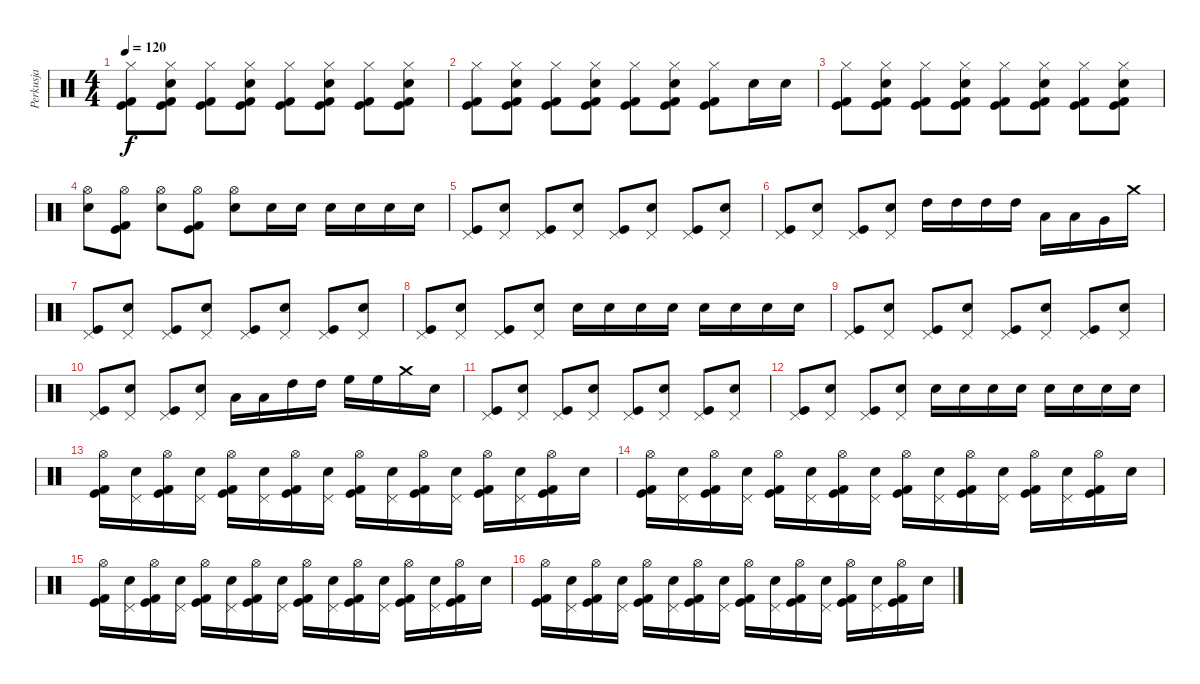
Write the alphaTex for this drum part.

\track ("Perkusja" "Perkusja") {instrument percussion}
\staff {score}
\articulation defaults
\ts (4 4)
\tempo 120
\clef neutral
\ks c
("Hi-Hat (closed)" "Kick (hit)" "Kick (hit) 2").8{dy f} ("Hi-Hat (closed)" "Snare (hit) 2" "Kick (hit)" "Kick (hit) 2").8 ("Hi-Hat (closed)" "Kick (hit)" "Kick (hit) 2").8 ("Hi-Hat (closed)" "Snare (hit) 2" "Kick (hit)" "Kick (hit) 2").8 ("Hi-Hat (closed)" "Kick (hit)" "Kick (hit) 2").8 ("Hi-Hat (closed)" "Snare (hit) 2" "Kick (hit)" "Kick (hit) 2").8 ("Hi-Hat (closed)" "Kick (hit)" "Kick (hit) 2").8 ("Hi-Hat (closed)" "Snare (hit) 2" "Kick (hit)" "Kick (hit) 2").8 |
("Hi-Hat (closed)" "Kick (hit)" "Kick (hit) 2").8 ("Hi-Hat (closed)" "Snare (hit) 2" "Kick (hit)" "Kick (hit) 2").8 ("Hi-Hat (closed)" "Kick (hit)" "Kick (hit) 2").8 ("Hi-Hat (closed)" "Snare (hit) 2" "Kick (hit)" "Kick (hit) 2").8 ("Hi-Hat (closed)" "Kick (hit)" "Kick (hit) 2").8 ("Hi-Hat (closed)" "Snare (hit) 2" "Kick (hit)" "Kick (hit) 2").8 ("Hi-Hat (closed)" "Kick (hit)" "Kick (hit) 2").8 "Snare (hit) 2".16 "Snare (hit) 2".16 |
("Hi-Hat (closed)" "Kick (hit)" "Kick (hit) 2").8 ("Hi-Hat (closed)" "Snare (hit) 2" "Kick (hit)" "Kick (hit) 2").8 ("Hi-Hat (closed)" "Kick (hit)" "Kick (hit) 2").8 ("Hi-Hat (closed)" "Snare (hit) 2" "Kick (hit)" "Kick (hit) 2").8 ("Hi-Hat (closed)" "Kick (hit)" "Kick (hit) 2").8 ("Hi-Hat (closed)" "Snare (hit) 2" "Kick (hit)" "Kick (hit) 2").8 ("Hi-Hat (closed)" "Kick (hit)" "Kick (hit) 2").8 ("Hi-Hat (closed)" "Snare (hit) 2" "Kick (hit)" "Kick (hit) 2").8 |
("Hi-Hat (open)" "Electric Snare (hit)").8 ("Hi-Hat (open)" "Kick (hit)" "Kick (hit) 2").8 ("Hi-Hat (open)" "Electric Snare (hit)").8 ("Hi-Hat (open)" "Kick (hit)" "Kick (hit) 2").8 ("Hi-Hat (open)" "Electric Snare (hit)").8 "Snare (hit) 2".16 "Snare (hit) 2".16 "Snare (hit) 2".16 "Snare (hit) 2".16 "Snare (hit) 2".16 "Snare (hit) 2".16 |
("Pedal Hi-Hat (hit)" "Kick (hit)").8 ("Pedal Hi-Hat (hit)" "Snare (hit) 2").8 ("Pedal Hi-Hat (hit)" "Kick (hit)").8 ("Pedal Hi-Hat (hit)" "Snare (hit) 2").8 ("Pedal Hi-Hat (hit)" "Kick (hit)").8 ("Pedal Hi-Hat (hit)" "Snare (hit) 2").8 ("Pedal Hi-Hat (hit)" "Kick (hit)").8 ("Pedal Hi-Hat (hit)" "Snare (hit) 2").8 |
("Pedal Hi-Hat (hit)" "Kick (hit)").8 ("Pedal Hi-Hat (hit)" "Snare (hit) 2").8 ("Pedal Hi-Hat (hit)" "Kick (hit)").8 ("Pedal Hi-Hat (hit)" "Snare (hit) 2").8 "High Tom (hit)".16 "High Tom (hit)".16 "High Tom (hit)".16 "High Tom (hit)".16 "Low Tom (hit)".16 "Low Tom (hit)".16 "Very Low Tom (hit)".16 "Crash medium (hit)".16 |
("Pedal Hi-Hat (hit)" "Kick (hit)").8 ("Pedal Hi-Hat (hit)" "Snare (hit) 2").8 ("Pedal Hi-Hat (hit)" "Kick (hit)").8 ("Pedal Hi-Hat (hit)" "Snare (hit) 2").8 ("Pedal Hi-Hat (hit)" "Kick (hit)").8 ("Pedal Hi-Hat (hit)" "Snare (hit) 2").8 ("Pedal Hi-Hat (hit)" "Kick (hit)").8 ("Pedal Hi-Hat (hit)" "Snare (hit) 2").8 |
("Pedal Hi-Hat (hit)" "Kick (hit)").8 ("Pedal Hi-Hat (hit)" "Snare (hit) 2").8 ("Pedal Hi-Hat (hit)" "Kick (hit)").8 ("Pedal Hi-Hat (hit)" "Snare (hit) 2").8 "Snare (hit) 2".16 "Snare (hit) 2".16 "Snare (hit) 2".16 "Snare (hit) 2".16 "Snare (hit) 2".16 "Snare (hit) 2".16 "Snare (hit) 2".16 "Snare (hit) 2".16 |
("Pedal Hi-Hat (hit)" "Kick (hit)").8 ("Pedal Hi-Hat (hit)" "Snare (hit) 2").8 ("Pedal Hi-Hat (hit)" "Kick (hit)").8 ("Pedal Hi-Hat (hit)" "Snare (hit) 2").8 ("Pedal Hi-Hat (hit)" "Kick (hit)").8 ("Pedal Hi-Hat (hit)" "Snare (hit) 2").8 ("Pedal Hi-Hat (hit)" "Kick (hit)").8 ("Pedal Hi-Hat (hit)" "Snare (hit) 2").8 |
("Pedal Hi-Hat (hit)" "Kick (hit)").8 ("Pedal Hi-Hat (hit)" "Snare (hit) 2").8 ("Pedal Hi-Hat (hit)" "Kick (hit)").8 ("Pedal Hi-Hat (hit)" "Snare (hit) 2").8 "Low Tom (hit)".16 "Low Tom (hit)".16 "High Tom (hit)".16 "High Tom (hit)".16 "High Floor Tom (hit)".16 "High Floor Tom (hit)".16 "Crash medium (hit)".16 "Snare (hit)"{x}.16 |
("Pedal Hi-Hat (hit)" "Kick (hit)").8 ("Pedal Hi-Hat (hit)" "Snare (hit) 2").8 ("Pedal Hi-Hat (hit)" "Kick (hit)").8 ("Pedal Hi-Hat (hit)" "Snare (hit) 2").8 ("Pedal Hi-Hat (hit)" "Kick (hit)").8 ("Pedal Hi-Hat (hit)" "Snare (hit) 2").8 ("Pedal Hi-Hat (hit)" "Kick (hit)").8 ("Pedal Hi-Hat (hit)" "Snare (hit) 2").8 |
("Pedal Hi-Hat (hit)" "Kick (hit)").8 ("Pedal Hi-Hat (hit)" "Snare (hit) 2").8 ("Pedal Hi-Hat (hit)" "Kick (hit)").8 ("Pedal Hi-Hat (hit)" "Snare (hit) 2").8 "Snare (hit) 2".16 "Snare (hit) 2".16 "Snare (hit) 2".16 "Snare (hit) 2".16 "Snare (hit) 2".16 "Snare (hit) 2".16 "Snare (hit) 2".16 "Snare (hit) 2".16 |
("Hi-Hat (open)" "Kick (hit)" "Kick (hit) 2").16 ("Pedal Hi-Hat (hit)" "Snare (hit) 2").16 ("Hi-Hat (open)" "Kick (hit)" "Kick (hit) 2").16 ("Pedal Hi-Hat (hit)" "Snare (hit) 2").16 ("Hi-Hat (open)" "Kick (hit)" "Kick (hit) 2").16 ("Pedal Hi-Hat (hit)" "Snare (hit) 2").16 ("Hi-Hat (open)" "Kick (hit)" "Kick (hit) 2").16 ("Pedal Hi-Hat (hit)" "Snare (hit) 2").16 ("Hi-Hat (open)" "Kick (hit)" "Kick (hit) 2").16 ("Pedal Hi-Hat (hit)" "Snare (hit) 2").16 ("Hi-Hat (open)" "Kick (hit)" "Kick (hit) 2").16 ("Pedal Hi-Hat (hit)" "Snare (hit) 2").16 ("Hi-Hat (open)" "Kick (hit)" "Kick (hit) 2").16 ("Pedal Hi-Hat (hit)" "Snare (hit) 2").16 ("Hi-Hat (open)" "Kick (hit)" "Kick (hit) 2").16 "Snare (hit) 2".16 |
("Hi-Hat (open)" "Kick (hit)" "Kick (hit) 2").16 ("Pedal Hi-Hat (hit)" "Snare (hit) 2").16 ("Hi-Hat (open)" "Kick (hit)" "Kick (hit) 2").16 ("Pedal Hi-Hat (hit)" "Snare (hit) 2").16 ("Hi-Hat (open)" "Kick (hit)" "Kick (hit) 2").16 ("Pedal Hi-Hat (hit)" "Snare (hit) 2").16 ("Hi-Hat (open)" "Kick (hit)" "Kick (hit) 2").16 ("Pedal Hi-Hat (hit)" "Snare (hit) 2").16 ("Hi-Hat (open)" "Kick (hit)" "Kick (hit) 2").16 ("Pedal Hi-Hat (hit)" "Snare (hit) 2").16 ("Hi-Hat (open)" "Kick (hit)" "Kick (hit) 2").16 ("Pedal Hi-Hat (hit)" "Snare (hit) 2").16 ("Hi-Hat (open)" "Kick (hit)" "Kick (hit) 2").16 ("Pedal Hi-Hat (hit)" "Snare (hit) 2").16 ("Hi-Hat (open)" "Kick (hit)" "Kick (hit) 2").16 "Snare (hit) 2".16 |
("Hi-Hat (open)" "Kick (hit)" "Kick (hit) 2").16 ("Pedal Hi-Hat (hit)" "Snare (hit) 2").16 ("Hi-Hat (open)" "Kick (hit)" "Kick (hit) 2").16 ("Pedal Hi-Hat (hit)" "Snare (hit) 2").16 ("Hi-Hat (open)" "Kick (hit)" "Kick (hit) 2").16 ("Pedal Hi-Hat (hit)" "Snare (hit) 2").16 ("Hi-Hat (open)" "Kick (hit)" "Kick (hit) 2").16 ("Pedal Hi-Hat (hit)" "Snare (hit) 2").16 ("Hi-Hat (open)" "Kick (hit)" "Kick (hit) 2").16 ("Pedal Hi-Hat (hit)" "Snare (hit) 2").16 ("Hi-Hat (open)" "Kick (hit)" "Kick (hit) 2").16 ("Pedal Hi-Hat (hit)" "Snare (hit) 2").16 ("Hi-Hat (open)" "Kick (hit)" "Kick (hit) 2").16 ("Pedal Hi-Hat (hit)" "Snare (hit) 2").16 ("Hi-Hat (open)" "Kick (hit)" "Kick (hit) 2").16 "Snare (hit) 2".16 |
("Hi-Hat (open)" "Kick (hit)" "Kick (hit) 2").16 ("Pedal Hi-Hat (hit)" "Snare (hit) 2").16 ("Hi-Hat (open)" "Kick (hit)" "Kick (hit) 2").16 ("Pedal Hi-Hat (hit)" "Snare (hit) 2").16 ("Hi-Hat (open)" "Kick (hit)" "Kick (hit) 2").16 ("Pedal Hi-Hat (hit)" "Snare (hit) 2").16 ("Hi-Hat (open)" "Kick (hit)" "Kick (hit) 2").16 ("Pedal Hi-Hat (hit)" "Snare (hit) 2").16 ("Hi-Hat (open)" "Kick (hit)" "Kick (hit) 2").16 ("Pedal Hi-Hat (hit)" "Snare (hit) 2").16 ("Hi-Hat (open)" "Kick (hit)" "Kick (hit) 2").16 ("Pedal Hi-Hat (hit)" "Snare (hit) 2").16 ("Hi-Hat (open)" "Kick (hit)" "Kick (hit) 2").16 ("Pedal Hi-Hat (hit)" "Snare (hit) 2").16 ("Hi-Hat (open)" "Kick (hit)" "Kick (hit) 2").16 "Snare (hit) 2".16
